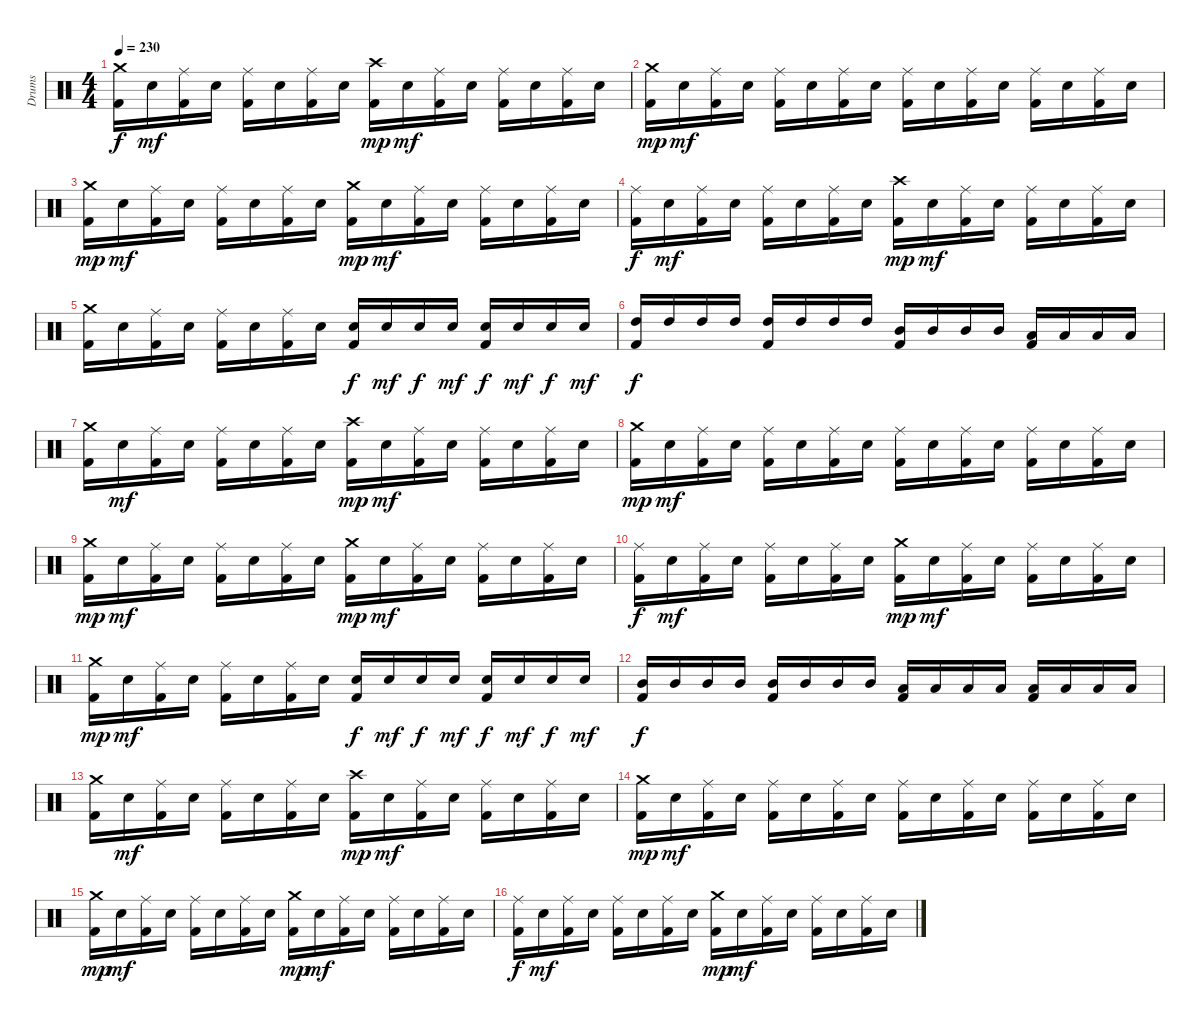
\track ("Drums" "Drums") {instrument percussion}
\staff {score}
\articulation defaults
\ts (4 4)
\tempo 230
\clef neutral
\ks c
("Crash medium (hit)" "Kick (hit) 2").16{dy f} "Electric Snare (hit)".16{dy mf} ("Ride (middle)" "Kick (hit) 2").16 "Electric Snare (hit)".16 ("Ride (middle)" "Kick (hit) 2").16 "Electric Snare (hit)".16 ("Ride (middle)" "Kick (hit) 2").16 "Electric Snare (hit)".16 ("Crash high (hit)" "Kick (hit) 2").16{dy mp} "Electric Snare (hit)".16{dy mf} ("Ride (middle)" "Kick (hit) 2").16 "Electric Snare (hit)".16 ("Ride (middle)" "Kick (hit) 2").16 "Electric Snare (hit)".16 ("Ride (middle)" "Kick (hit) 2").16 "Electric Snare (hit)".16 |
("Crash medium (hit)" "Kick (hit) 2").16{dy mp} "Electric Snare (hit)".16{dy mf} ("Ride (middle)" "Kick (hit) 2").16 "Electric Snare (hit)".16 ("Ride (middle)" "Kick (hit) 2").16 "Electric Snare (hit)".16 ("Ride (middle)" "Kick (hit) 2").16 "Electric Snare (hit)".16 ("Ride (middle)" "Kick (hit) 2").16 "Electric Snare (hit)".16 ("Ride (middle)" "Kick (hit) 2").16 "Electric Snare (hit)".16 ("Ride (middle)" "Kick (hit) 2").16 "Electric Snare (hit)".16 ("Ride (middle)" "Kick (hit) 2").16 "Electric Snare (hit)".16 |
("Crash medium (hit)" "Kick (hit) 2").16{dy mp} "Electric Snare (hit)".16{dy mf} ("Ride (middle)" "Kick (hit) 2").16 "Electric Snare (hit)".16 ("Ride (middle)" "Kick (hit) 2").16 "Electric Snare (hit)".16 ("Ride (middle)" "Kick (hit) 2").16 "Electric Snare (hit)".16 ("Crash medium (hit)" "Kick (hit) 2").16{dy mp} "Electric Snare (hit)".16{dy mf} ("Ride (middle)" "Kick (hit) 2").16 "Electric Snare (hit)".16 ("Ride (middle)" "Kick (hit) 2").16 "Electric Snare (hit)".16 ("Ride (middle)" "Kick (hit) 2").16 "Electric Snare (hit)".16 |
("Ride (middle)" "Kick (hit) 2").16{dy f} "Electric Snare (hit)".16{dy mf} ("Ride (middle)" "Kick (hit) 2").16 "Electric Snare (hit)".16 ("Ride (middle)" "Kick (hit) 2").16 "Electric Snare (hit)".16 ("Ride (middle)" "Kick (hit) 2").16 "Electric Snare (hit)".16 ("Crash high (hit)" "Kick (hit) 2").16{dy mp} "Electric Snare (hit)".16{dy mf} ("Ride (middle)" "Kick (hit) 2").16 "Electric Snare (hit)".16 ("Ride (middle)" "Kick (hit) 2").16 "Electric Snare (hit)".16 ("Ride (middle)" "Kick (hit) 2").16 "Electric Snare (hit)".16 |
("Crash medium (hit)" "Kick (hit) 2").16 "Electric Snare (hit)".16 ("Ride (middle)" "Kick (hit) 2").16 "Electric Snare (hit)".16 ("Ride (middle)" "Kick (hit) 2").16 "Electric Snare (hit)".16 ("Ride (middle)" "Kick (hit) 2").16 "Electric Snare (hit)".16 ("Electric Snare (hit)" "Kick (hit) 2").16{dy f} "Electric Snare (hit)".16{dy mf} "Electric Snare (hit)".16{dy f} "Electric Snare (hit)".16{dy mf} ("Electric Snare (hit)" "Kick (hit) 2").16{dy f} "Electric Snare (hit)".16{dy mf} "Electric Snare (hit)".16{dy f} "Electric Snare (hit)".16{dy mf} |
("High Tom (hit)" "Kick (hit) 2").16{dy f} "High Tom (hit)".16 "High Tom (hit)".16 "High Tom (hit)".16 ("High Tom (hit)" "Kick (hit) 2").16 "High Tom (hit)".16 "High Tom (hit)".16 "High Tom (hit)".16 ("Mid Tom (hit)" "Kick (hit) 2").16 "Mid Tom (hit)".16 "Mid Tom (hit)".16 "Mid Tom (hit)".16 ("Low Tom (hit)" "Kick (hit) 2").16 "Low Tom (hit)".16 "Low Tom (hit)".16 "Low Tom (hit)".16 |
("Crash medium (hit)" "Kick (hit) 2").16 "Electric Snare (hit)".16{dy mf} ("Ride (middle)" "Kick (hit) 2").16 "Electric Snare (hit)".16 ("Ride (middle)" "Kick (hit) 2").16 "Electric Snare (hit)".16 ("Ride (middle)" "Kick (hit) 2").16 "Electric Snare (hit)".16 ("Crash high (hit)" "Kick (hit) 2").16{dy mp} "Electric Snare (hit)".16{dy mf} ("Ride (middle)" "Kick (hit) 2").16 "Electric Snare (hit)".16 ("Ride (middle)" "Kick (hit) 2").16 "Electric Snare (hit)".16 ("Ride (middle)" "Kick (hit) 2").16 "Electric Snare (hit)".16 |
("Crash medium (hit)" "Kick (hit) 2").16{dy mp} "Electric Snare (hit)".16{dy mf} ("Ride (middle)" "Kick (hit) 2").16 "Electric Snare (hit)".16 ("Ride (middle)" "Kick (hit) 2").16 "Electric Snare (hit)".16 ("Ride (middle)" "Kick (hit) 2").16 "Electric Snare (hit)".16 ("Ride (middle)" "Kick (hit) 2").16 "Electric Snare (hit)".16 ("Ride (middle)" "Kick (hit) 2").16 "Electric Snare (hit)".16 ("Ride (middle)" "Kick (hit) 2").16 "Electric Snare (hit)".16 ("Ride (middle)" "Kick (hit) 2").16 "Electric Snare (hit)".16 |
("Crash medium (hit)" "Kick (hit) 2").16{dy mp} "Electric Snare (hit)".16{dy mf} ("Ride (middle)" "Kick (hit) 2").16 "Electric Snare (hit)".16 ("Ride (middle)" "Kick (hit) 2").16 "Electric Snare (hit)".16 ("Ride (middle)" "Kick (hit) 2").16 "Electric Snare (hit)".16 ("Crash medium (hit)" "Kick (hit) 2").16{dy mp} "Electric Snare (hit)".16{dy mf} ("Ride (middle)" "Kick (hit) 2").16 "Electric Snare (hit)".16 ("Ride (middle)" "Kick (hit) 2").16 "Electric Snare (hit)".16 ("Ride (middle)" "Kick (hit) 2").16 "Electric Snare (hit)".16 |
("Ride (middle)" "Kick (hit) 2").16{dy f} "Electric Snare (hit)".16{dy mf} ("Ride (middle)" "Kick (hit) 2").16 "Electric Snare (hit)".16 ("Ride (middle)" "Kick (hit) 2").16 "Electric Snare (hit)".16 ("Ride (middle)" "Kick (hit) 2").16 "Electric Snare (hit)".16 ("Crash medium (hit)" "Kick (hit) 2").16{dy mp} "Electric Snare (hit)".16{dy mf} ("Ride (middle)" "Kick (hit) 2").16 "Electric Snare (hit)".16 ("Ride (middle)" "Kick (hit) 2").16 "Electric Snare (hit)".16 ("Ride (middle)" "Kick (hit) 2").16 "Electric Snare (hit)".16 |
("Crash medium (hit)" "Kick (hit) 2").16{dy mp} "Electric Snare (hit)".16{dy mf} ("Ride (middle)" "Kick (hit) 2").16 "Electric Snare (hit)".16 ("Ride (middle)" "Kick (hit) 2").16 "Electric Snare (hit)".16 ("Ride (middle)" "Kick (hit) 2").16 "Electric Snare (hit)".16 ("Electric Snare (hit)" "Kick (hit) 2").16{dy f} "Electric Snare (hit)".16{dy mf} "Electric Snare (hit)".16{dy f} "Electric Snare (hit)".16{dy mf} ("Electric Snare (hit)" "Kick (hit) 2").16{dy f} "Electric Snare (hit)".16{dy mf} "Electric Snare (hit)".16{dy f} "Electric Snare (hit)".16{dy mf} |
("Mid Tom (hit)" "Kick (hit) 2").16{dy f} "Mid Tom (hit)".16 "Mid Tom (hit)".16 "Mid Tom (hit)".16 ("Mid Tom (hit)" "Kick (hit) 2").16 "Mid Tom (hit)".16 "Mid Tom (hit)".16 "Mid Tom (hit)".16 ("Low Tom (hit)" "Kick (hit) 2").16 "Low Tom (hit)".16 "Low Tom (hit)".16 "Low Tom (hit)".16 ("Low Tom (hit)" "Kick (hit) 2").16 "Low Tom (hit)".16 "Low Tom (hit)".16 "Low Tom (hit)".16 |
("Crash medium (hit)" "Kick (hit) 2").16 "Electric Snare (hit)".16{dy mf} ("Ride (middle)" "Kick (hit) 2").16 "Electric Snare (hit)".16 ("Ride (middle)" "Kick (hit) 2").16 "Electric Snare (hit)".16 ("Ride (middle)" "Kick (hit) 2").16 "Electric Snare (hit)".16 ("Crash high (hit)" "Kick (hit) 2").16{dy mp} "Electric Snare (hit)".16{dy mf} ("Ride (middle)" "Kick (hit) 2").16 "Electric Snare (hit)".16 ("Ride (middle)" "Kick (hit) 2").16 "Electric Snare (hit)".16 ("Ride (middle)" "Kick (hit) 2").16 "Electric Snare (hit)".16 |
("Crash medium (hit)" "Kick (hit) 2").16{dy mp} "Electric Snare (hit)".16{dy mf} ("Ride (middle)" "Kick (hit) 2").16 "Electric Snare (hit)".16 ("Ride (middle)" "Kick (hit) 2").16 "Electric Snare (hit)".16 ("Ride (middle)" "Kick (hit) 2").16 "Electric Snare (hit)".16 ("Ride (middle)" "Kick (hit) 2").16 "Electric Snare (hit)".16 ("Ride (middle)" "Kick (hit) 2").16 "Electric Snare (hit)".16 ("Ride (middle)" "Kick (hit) 2").16 "Electric Snare (hit)".16 ("Ride (middle)" "Kick (hit) 2").16 "Electric Snare (hit)".16 |
("Crash medium (hit)" "Kick (hit) 2").16{dy mp} "Electric Snare (hit)".16{dy mf} ("Ride (middle)" "Kick (hit) 2").16 "Electric Snare (hit)".16 ("Ride (middle)" "Kick (hit) 2").16 "Electric Snare (hit)".16 ("Ride (middle)" "Kick (hit) 2").16 "Electric Snare (hit)".16 ("Crash medium (hit)" "Kick (hit) 2").16{dy mp} "Electric Snare (hit)".16{dy mf} ("Ride (middle)" "Kick (hit) 2").16 "Electric Snare (hit)".16 ("Ride (middle)" "Kick (hit) 2").16 "Electric Snare (hit)".16 ("Ride (middle)" "Kick (hit) 2").16 "Electric Snare (hit)".16 |
("Ride (middle)" "Kick (hit) 2").16{dy f} "Electric Snare (hit)".16{dy mf} ("Ride (middle)" "Kick (hit) 2").16 "Electric Snare (hit)".16 ("Ride (middle)" "Kick (hit) 2").16 "Electric Snare (hit)".16 ("Ride (middle)" "Kick (hit) 2").16 "Electric Snare (hit)".16 ("Crash medium (hit)" "Kick (hit) 2").16{dy mp} "Electric Snare (hit)".16{dy mf} ("Ride (middle)" "Kick (hit) 2").16 "Electric Snare (hit)".16 ("Ride (middle)" "Kick (hit) 2").16 "Electric Snare (hit)".16 ("Ride (middle)" "Kick (hit) 2").16 "Electric Snare (hit)".16
